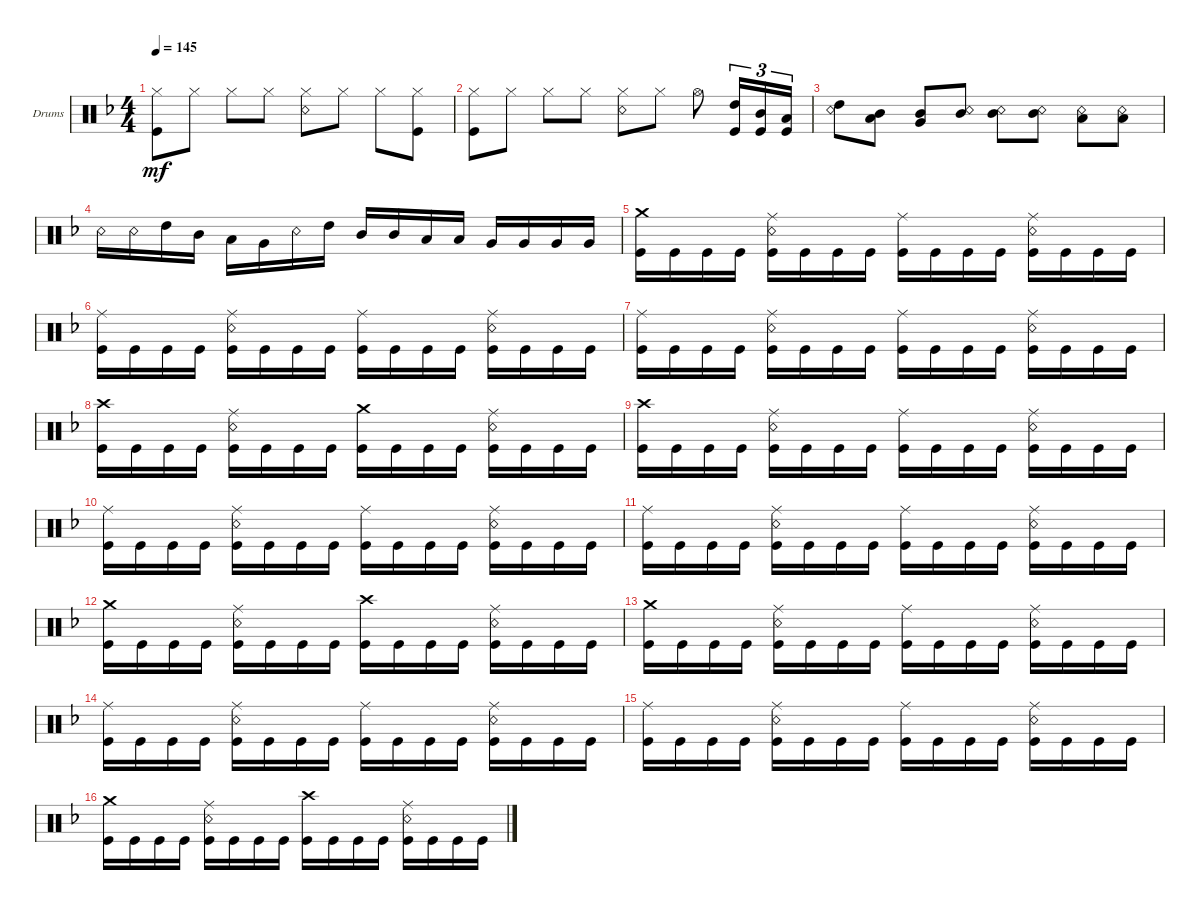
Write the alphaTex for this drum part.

\defaultSystemsLayout 4
\bracketExtendMode groupsimilarinstruments
\firstSystemTrackNameOrientation horizontal
\otherSystemsTrackNameOrientation horizontal
\track ("Drumkit" "Drums") {instrument percussion}
\staff {score}
\articulation defaults
\ts (4 4)
\tempo 145
\clef neutral
\ks dminor
("Kick (hit)" "Hi-Hat (closed)").8{dy mf} "Hi-Hat (closed)".8 "Hi-Hat (closed)".8 "Hi-Hat (closed)".8 ("Hi-Hat (closed)" "Snare (rim shot)").8 "Hi-Hat (closed)".8 "Hi-Hat (closed)".8 ("Hi-Hat (closed)" "Kick (hit)").8 |
("Kick (hit)" "Hi-Hat (closed)").8 "Hi-Hat (closed)".8 "Hi-Hat (closed)".8 "Hi-Hat (closed)".8 ("Hi-Hat (closed)" "Snare (rim shot)").8 "Hi-Hat (closed)".8 "Hi-Hat (open)".8 ("Kick (hit)" "High Tom (hit)").16{tu (3 2)} ("Kick (hit)" "Mid Tom (hit)").16{tu (3 2)} ("Low Tom (hit)" "Kick (hit)").16{tu (3 2)} |
("Snare (rim shot)" "High Tom (hit)").8 ("Mid Tom (hit)" "Low Tom (hit)").8 ("Mid Tom (hit)" "Very Low Tom (hit)").8 ("Mid Tom (hit)" "Snare (rim shot)").8 ("Mid Tom (hit)" "Snare (rim shot)").8 ("Mid Tom (hit)" "Snare (rim shot)").8 ("Snare (rim shot)" "Low Tom (hit)").8 ("Snare (rim shot)" "Low Tom (hit)").8 |
"Snare (rim shot)".16 "Snare (rim shot)".16 "High Tom (hit)".16 "Mid Tom (hit)".16 "Low Tom (hit)".16 "Very Low Tom (hit)".16 "Snare (rim shot)".16 "High Tom (hit)".16 "Mid Tom (hit)".16 "Mid Tom (hit)".16 "Low Tom (hit)".16 "Low Tom (hit)".16 "Very Low Tom (hit)".16 "Very Low Tom (hit)".16 "Very Low Tom (hit)".16 "Very Low Tom (hit)".16 |
("Kick (hit)" "Crash medium (hit)").16 "Kick (hit)".16 "Kick (hit)".16 "Kick (hit)".16 ("Kick (hit)" "Ride (middle)" "Snare (rim shot)").16 "Kick (hit)".16 "Kick (hit)".16 "Kick (hit)".16 ("Kick (hit)" "Ride (middle)").16 "Kick (hit)".16 "Kick (hit)".16 "Kick (hit)".16 ("Kick (hit)" "Ride (middle)" "Snare (rim shot)").16 "Kick (hit)".16 "Kick (hit)".16 "Kick (hit)".16 |
("Kick (hit)" "Ride (middle)").16 "Kick (hit)".16 "Kick (hit)".16 "Kick (hit)".16 ("Kick (hit)" "Ride (middle)" "Snare (rim shot)").16 "Kick (hit)".16 "Kick (hit)".16 "Kick (hit)".16 ("Kick (hit)" "Ride (middle)").16 "Kick (hit)".16 "Kick (hit)".16 "Kick (hit)".16 ("Kick (hit)" "Ride (middle)" "Snare (rim shot)").16 "Kick (hit)".16 "Kick (hit)".16 "Kick (hit)".16 |
("Kick (hit)" "Ride (middle)").16 "Kick (hit)".16 "Kick (hit)".16 "Kick (hit)".16 ("Kick (hit)" "Ride (middle)" "Snare (rim shot)").16 "Kick (hit)".16 "Kick (hit)".16 "Kick (hit)".16 ("Kick (hit)" "Ride (middle)").16 "Kick (hit)".16 "Kick (hit)".16 "Kick (hit)".16 ("Kick (hit)" "Ride (middle)" "Snare (rim shot)").16 "Kick (hit)".16 "Kick (hit)".16 "Kick (hit)".16 |
("Kick (hit)" "Crash high (hit)").16 "Kick (hit)".16 "Kick (hit)".16 "Kick (hit)".16 ("Kick (hit)" "Ride (middle)" "Snare (rim shot)").16 "Kick (hit)".16 "Kick (hit)".16 "Kick (hit)".16 ("Kick (hit)" "Crash medium (hit)").16 "Kick (hit)".16 "Kick (hit)".16 "Kick (hit)".16 ("Kick (hit)" "Ride (middle)" "Snare (rim shot)").16 "Kick (hit)".16 "Kick (hit)".16 "Kick (hit)".16 |
("Kick (hit)" "Crash high (hit)").16 "Kick (hit)".16 "Kick (hit)".16 "Kick (hit)".16 ("Kick (hit)" "Ride (middle)" "Snare (rim shot)").16 "Kick (hit)".16 "Kick (hit)".16 "Kick (hit)".16 ("Kick (hit)" "Ride (middle)").16 "Kick (hit)".16 "Kick (hit)".16 "Kick (hit)".16 ("Kick (hit)" "Ride (middle)" "Snare (rim shot)").16 "Kick (hit)".16 "Kick (hit)".16 "Kick (hit)".16 |
("Kick (hit)" "Ride (middle)").16 "Kick (hit)".16 "Kick (hit)".16 "Kick (hit)".16 ("Kick (hit)" "Ride (middle)" "Snare (rim shot)").16 "Kick (hit)".16 "Kick (hit)".16 "Kick (hit)".16 ("Kick (hit)" "Ride (middle)").16 "Kick (hit)".16 "Kick (hit)".16 "Kick (hit)".16 ("Kick (hit)" "Ride (middle)" "Snare (rim shot)").16 "Kick (hit)".16 "Kick (hit)".16 "Kick (hit)".16 |
("Kick (hit)" "Ride (middle)").16 "Kick (hit)".16 "Kick (hit)".16 "Kick (hit)".16 ("Kick (hit)" "Ride (middle)" "Snare (rim shot)").16 "Kick (hit)".16 "Kick (hit)".16 "Kick (hit)".16 ("Kick (hit)" "Ride (middle)").16 "Kick (hit)".16 "Kick (hit)".16 "Kick (hit)".16 ("Kick (hit)" "Ride (middle)" "Snare (rim shot)").16 "Kick (hit)".16 "Kick (hit)".16 "Kick (hit)".16 |
("Kick (hit)" "Crash medium (hit)").16 "Kick (hit)".16 "Kick (hit)".16 "Kick (hit)".16 ("Kick (hit)" "Ride (middle)" "Snare (rim shot)").16 "Kick (hit)".16 "Kick (hit)".16 "Kick (hit)".16 ("Kick (hit)" "Crash high (hit)").16 "Kick (hit)".16 "Kick (hit)".16 "Kick (hit)".16 ("Kick (hit)" "Ride (middle)" "Snare (rim shot)").16 "Kick (hit)".16 "Kick (hit)".16 "Kick (hit)".16 |
("Kick (hit)" "Crash medium (hit)").16 "Kick (hit)".16 "Kick (hit)".16 "Kick (hit)".16 ("Kick (hit)" "Ride (middle)" "Snare (rim shot)").16 "Kick (hit)".16 "Kick (hit)".16 "Kick (hit)".16 ("Kick (hit)" "Ride (middle)").16 "Kick (hit)".16 "Kick (hit)".16 "Kick (hit)".16 ("Kick (hit)" "Ride (middle)" "Snare (rim shot)").16 "Kick (hit)".16 "Kick (hit)".16 "Kick (hit)".16 |
("Kick (hit)" "Ride (middle)").16 "Kick (hit)".16 "Kick (hit)".16 "Kick (hit)".16 ("Kick (hit)" "Ride (middle)" "Snare (rim shot)").16 "Kick (hit)".16 "Kick (hit)".16 "Kick (hit)".16 ("Kick (hit)" "Ride (middle)").16 "Kick (hit)".16 "Kick (hit)".16 "Kick (hit)".16 ("Kick (hit)" "Ride (middle)" "Snare (rim shot)").16 "Kick (hit)".16 "Kick (hit)".16 "Kick (hit)".16 |
("Kick (hit)" "Ride (middle)").16 "Kick (hit)".16 "Kick (hit)".16 "Kick (hit)".16 ("Kick (hit)" "Ride (middle)" "Snare (rim shot)").16 "Kick (hit)".16 "Kick (hit)".16 "Kick (hit)".16 ("Kick (hit)" "Ride (middle)").16 "Kick (hit)".16 "Kick (hit)".16 "Kick (hit)".16 ("Kick (hit)" "Ride (middle)" "Snare (rim shot)").16 "Kick (hit)".16 "Kick (hit)".16 "Kick (hit)".16 |
("Kick (hit)" "Crash medium (hit)").16 "Kick (hit)".16 "Kick (hit)".16 "Kick (hit)".16 ("Kick (hit)" "Ride (middle)" "Snare (rim shot)").16 "Kick (hit)".16 "Kick (hit)".16 "Kick (hit)".16 ("Kick (hit)" "Crash high (hit)").16 "Kick (hit)".16 "Kick (hit)".16 "Kick (hit)".16 ("Kick (hit)" "Ride (middle)" "Snare (rim shot)").16 "Kick (hit)".16 "Kick (hit)".16 "Kick (hit)".16
